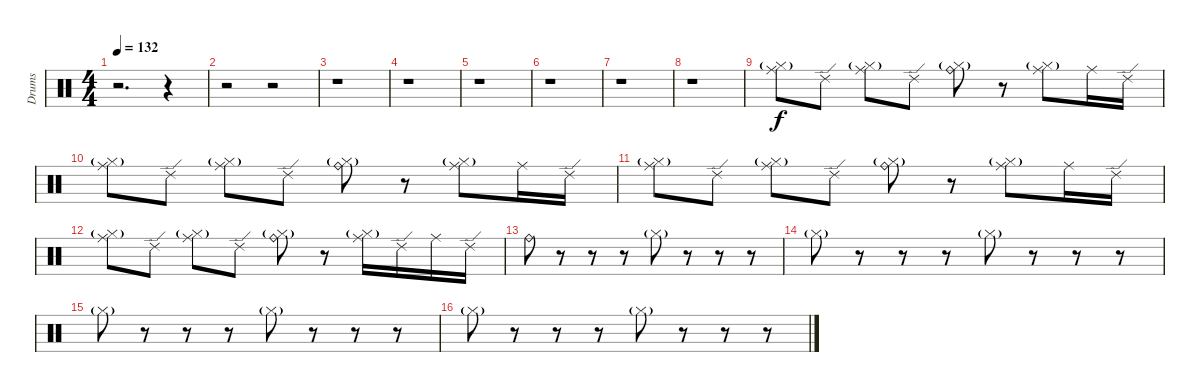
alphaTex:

\track ("Drums" "Drums") {instrument percussion}
\staff {score}
\articulation defaults
\ts (4 4)
\tempo 132
\clef neutral
\ks c
r.2{d dy f} r.4 |
r.2 r.2 |
r.1 |
r.1 |
r.1 |
r.1 |
r.1 |
r.1 |
("Ride (middle)" "Hi-Hat (closed)"{g}).8 "Ride (edge) 2".8 ("Ride (middle)" "Hi-Hat (closed)"{g}).8 "Ride (edge) 2".8 ("Ride (bell)" "Hi-Hat (closed)"{g}).8 r.8 ("Ride (middle)" "Hi-Hat (closed)"{g}).8 "Ride (middle)".16 "Ride (edge) 2".16 |
("Ride (middle)" "Hi-Hat (closed)"{g}).8 "Ride (edge) 2".8 ("Ride (middle)" "Hi-Hat (closed)"{g}).8 "Ride (edge) 2".8 ("Ride (bell)" "Hi-Hat (closed)"{g}).8 r.8 ("Ride (middle)" "Hi-Hat (closed)"{g}).8 "Ride (middle)".16 "Ride (edge) 2".16 |
("Ride (middle)" "Hi-Hat (closed)"{g}).8 "Ride (edge) 2".8 ("Ride (middle)" "Hi-Hat (closed)"{g}).8 "Ride (edge) 2".8 ("Ride (bell)" "Hi-Hat (closed)"{g}).8 r.8 ("Ride (middle)" "Hi-Hat (closed)"{g}).8 "Ride (middle)".16 "Ride (edge) 2".16 |
("Ride (middle)" "Hi-Hat (closed)"{g}).8 "Ride (edge) 2".8 ("Ride (middle)" "Hi-Hat (closed)"{g}).8 "Ride (edge) 2".8 ("Ride (bell)" "Hi-Hat (closed)"{g}).8 r.8 ("Ride (middle)" "Hi-Hat (closed)"{g}).16 "Ride (edge) 2".16 "Ride (middle)".16 "Ride (edge) 2".16 |
"Ride (bell)".8 r.8 r.8 r.8 "Hi-Hat (closed)"{g}.8 r.8 r.8 r.8 |
"Hi-Hat (closed)"{g}.8 r.8 r.8 r.8 "Hi-Hat (closed)"{g}.8 r.8 r.8 r.8 |
"Hi-Hat (closed)"{g}.8 r.8 r.8 r.8 "Hi-Hat (closed)"{g}.8 r.8 r.8 r.8 |
"Hi-Hat (closed)"{g}.8 r.8 r.8 r.8 "Hi-Hat (closed)"{g}.8 r.8 r.8 r.8
